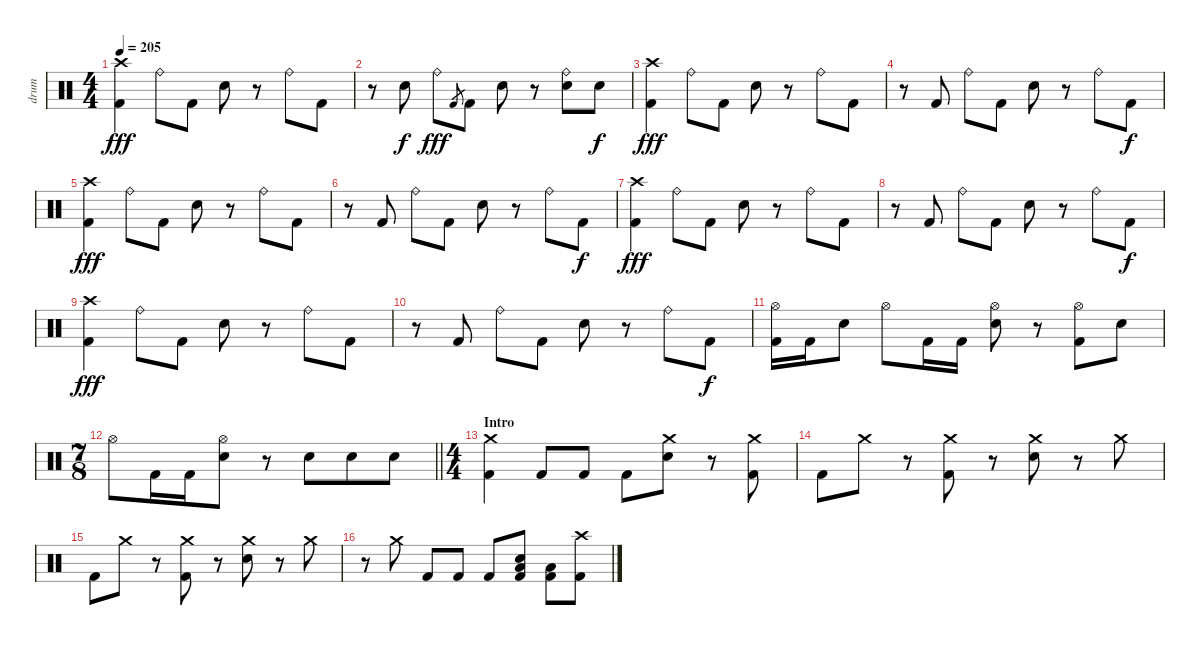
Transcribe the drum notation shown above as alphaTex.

\track ("drum" "drum") {instrument percussion}
\staff {score}
\articulation defaults
\ts (4 4)
\tempo 205
\clef neutral
\ks c
("Crash high (hit)" "Kick (hit) 2").4{dy fff} "Ride (bell)".8 "Kick (hit) 2".8 "Electric Snare (hit)".8 r.8 "Ride (bell)".8 "Kick (hit) 2".8 |
r.8 "Electric Snare (hit)".8{dy f} "Ride (bell)".8{dy fff} "Kick (hit) 2".8{gr} "Kick (hit) 2".8 "Electric Snare (hit)".8 r.8 ("Ride (bell)" "Electric Snare (hit)").8 "Electric Snare (hit)".8{dy f} |
("Crash high (hit)" "Kick (hit) 2").4{dy fff} "Ride (bell)".8 "Kick (hit) 2".8 "Electric Snare (hit)".8 r.8 "Ride (bell)".8 "Kick (hit) 2".8 |
r.8 "Kick (hit) 2".8 "Ride (bell)".8 "Kick (hit) 2".8 "Electric Snare (hit)".8 r.8 "Ride (bell)".8 "Kick (hit) 2".8{dy f} |
("Crash high (hit)" "Kick (hit) 2").4{dy fff} "Ride (bell)".8 "Kick (hit) 2".8 "Electric Snare (hit)".8 r.8 "Ride (bell)".8 "Kick (hit) 2".8 |
r.8 "Kick (hit) 2".8 "Ride (bell)".8 "Kick (hit) 2".8 "Electric Snare (hit)".8 r.8 "Ride (bell)".8 "Kick (hit) 2".8{dy f} |
("Crash high (hit)" "Kick (hit) 2").4{dy fff} "Ride (bell)".8 "Kick (hit) 2".8 "Electric Snare (hit)".8 r.8 "Ride (bell)".8 "Kick (hit) 2".8 |
r.8 "Kick (hit) 2".8 "Ride (bell)".8 "Kick (hit) 2".8 "Electric Snare (hit)".8 r.8 "Ride (bell)".8 "Kick (hit) 2".8{dy f} |
("Crash high (hit)" "Kick (hit) 2").4{dy fff} "Ride (bell)".8 "Kick (hit) 2".8 "Electric Snare (hit)".8 r.8 "Ride (bell)".8 "Kick (hit) 2".8 |
r.8 "Kick (hit) 2".8 "Ride (bell)".8 "Kick (hit) 2".8 "Electric Snare (hit)".8 r.8 "Ride (bell)".8 "Kick (hit) 2".8{dy f} |
("Hi-Hat (open)" "Kick (hit) 2").16 "Kick (hit) 2".16 "Electric Snare (hit)".8 "Hi-Hat (open)".8 "Kick (hit) 2".16 "Kick (hit) 2".16 ("Hi-Hat (open)" "Electric Snare (hit)").8 r.8 ("Hi-Hat (open)" "Kick (hit) 2").8 "Electric Snare (hit)".8 |
\ts (7 8)
\barLineRight lightlight "Hi-Hat (open)".8 "Kick (hit) 2".16 "Kick (hit) 2".16
("Hi-Hat (open)" "Electric Snare (hit)").8 r.8 "Electric Snare (hit)".8 "Electric Snare (hit)".8 "Electric Snare (hit)".8 |
\ts (4 4)
\section ("" "Intro")
("Crash medium (hit)" "Kick (hit) 2").4 "Kick (hit) 2".8 "Kick (hit) 2".8 "Kick (hit) 2".8 ("Crash medium (hit)" "Electric Snare (hit)").8 r.8 ("Crash medium (hit)" "Kick (hit) 2").8 |
"Kick (hit) 2".8 "Crash medium (hit)".8 r.8 ("Crash medium (hit)" "Kick (hit) 2").8 r.8 ("Crash medium (hit)" "Electric Snare (hit)").8 r.8 "Crash medium (hit)".8 |
"Kick (hit) 2".8 "Crash medium (hit)".8 r.8 ("Crash medium (hit)" "Kick (hit) 2").8 r.8 ("Crash medium (hit)" "Electric Snare (hit)").8 r.8 "Crash medium (hit)".8 |
r.8 "Crash medium (hit)".8 "Kick (hit) 2".8 "Kick (hit) 2".8 "Kick (hit) 2".8 ("Electric Snare (hit)" "Low Floor Tom (hit)" "Kick (hit) 2").8 ("Low Floor Tom (hit)" "Kick (hit) 2").8 ("Crash high (hit)" "Kick (hit) 2").8
